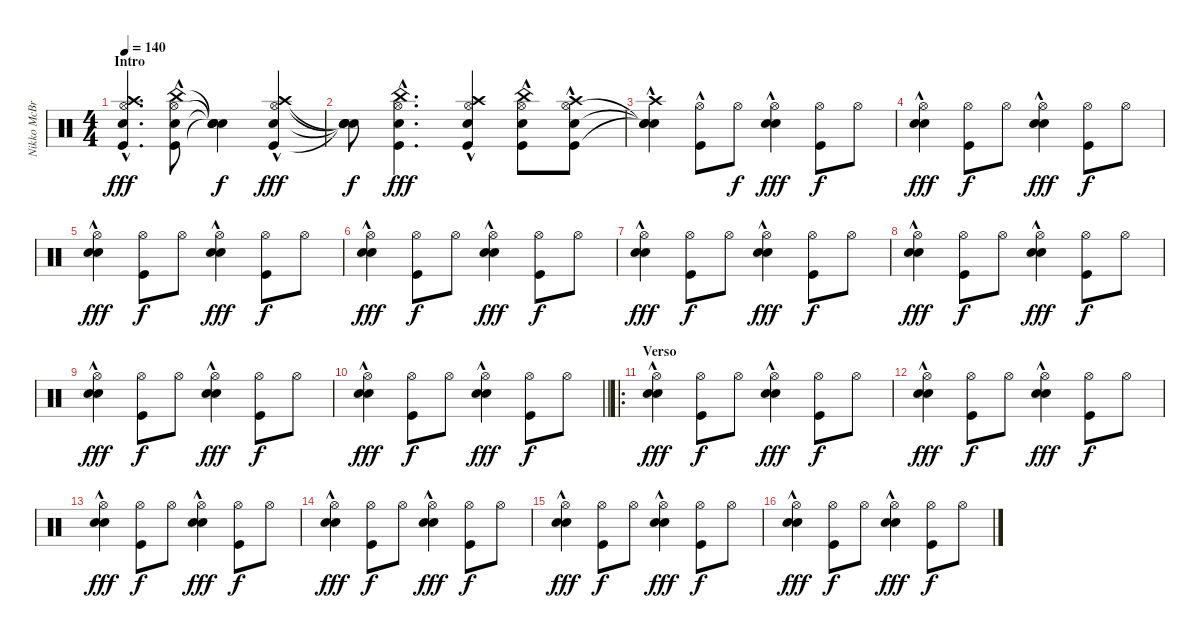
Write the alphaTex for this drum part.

\track ("Nikko McBrain" "Nikko McBr") {instrument percussion}
\staff {score}
\articulation defaults
\ts (4 4)
\section ("" "Intro")
\tempo 140
\clef neutral
\ks c
("Kick (hit)"{hac} "Hi-Hat (open)"{hac} "Crash high (hit)"{hac} "Snare (hit) 2"{hac}).4{d dy fff} ("Kick (hit)"{hac} "Hi-Hat (open)"{hac} "China (hit)"{hac} "Snare (hit) 2"{hac}).8 ("Snare (hit)"{t} "Snare (hit)"{t} "Snare (hit)"{t} "Snare (hit)"{t}).4{dy f} ("Kick (hit)"{hac} "Hi-Hat (open)"{hac} "Crash high (hit)"{hac} "Snare (hit) 2"{hac}).4{dy fff} |
("Snare (hit)"{t} "Snare (hit)"{t} "Snare (hit)"{t} "Snare (hit)"{t}).8{dy f} ("Kick (hit)"{hac} "Hi-Hat (open)"{hac} "China (hit)"{hac} "Snare (hit) 2"{hac}).4{d dy fff} ("Kick (hit)"{hac} "Hi-Hat (open)"{hac} "Crash high (hit)"{hac} "Snare (hit) 2"{hac}).4 ("Kick (hit)"{hac} "Hi-Hat (open)"{hac} "China (hit)"{hac} "Snare (hit) 2"{hac}).8 ("Kick (hit)"{hac} "Hi-Hat (open)"{hac} "Crash high (hit)"{hac} "Snare (hit) 2"{hac}).8 |
("Snare (hit)"{t} "Snare (hit)"{t} "Crash high (hit)"{hac} "Snare (hit)"{t}).4 ("Hi-Hat (open)" "Kick (hit)"{hac}).8 "Hi-Hat (open)".8{dy f} ("Hi-Hat (open)" "Snare (hit) 2"{hac} "Snare (hit) 2"{hac}).4{dy fff} ("Hi-Hat (open)" "Kick (hit)").8{dy f} "Hi-Hat (open)".8 |
("Hi-Hat (open)" "Snare (hit) 2"{hac} "Snare (hit) 2"{hac}).4{dy fff} ("Hi-Hat (open)" "Kick (hit)").8{dy f} "Hi-Hat (open)".8 ("Hi-Hat (open)" "Snare (hit) 2"{hac} "Snare (hit) 2"{hac}).4{dy fff} ("Hi-Hat (open)" "Kick (hit)").8{dy f} "Hi-Hat (open)".8 |
("Hi-Hat (open)" "Snare (hit) 2"{hac} "Snare (hit) 2"{hac}).4{dy fff} ("Hi-Hat (open)" "Kick (hit)").8{dy f} "Hi-Hat (open)".8 ("Hi-Hat (open)" "Snare (hit) 2"{hac} "Snare (hit) 2"{hac}).4{dy fff} ("Hi-Hat (open)" "Kick (hit)").8{dy f} "Hi-Hat (open)".8 |
("Hi-Hat (open)" "Snare (hit) 2"{hac} "Snare (hit) 2"{hac}).4{dy fff} ("Hi-Hat (open)" "Kick (hit)").8{dy f} "Hi-Hat (open)".8 ("Hi-Hat (open)" "Snare (hit) 2"{hac} "Snare (hit) 2"{hac}).4{dy fff} ("Hi-Hat (open)" "Kick (hit)").8{dy f} "Hi-Hat (open)".8 |
("Hi-Hat (open)" "Snare (hit) 2"{hac} "Snare (hit) 2"{hac}).4{dy fff} ("Hi-Hat (open)" "Kick (hit)").8{dy f} "Hi-Hat (open)".8 ("Hi-Hat (open)" "Snare (hit) 2"{hac} "Snare (hit) 2"{hac}).4{dy fff} ("Hi-Hat (open)" "Kick (hit)").8{dy f} "Hi-Hat (open)".8 |
("Hi-Hat (open)" "Snare (hit) 2"{hac} "Snare (hit) 2"{hac}).4{dy fff} ("Hi-Hat (open)" "Kick (hit)").8{dy f} "Hi-Hat (open)".8 ("Hi-Hat (open)" "Snare (hit) 2"{hac} "Snare (hit) 2"{hac}).4{dy fff} ("Hi-Hat (open)" "Kick (hit)").8{dy f} "Hi-Hat (open)".8 |
("Hi-Hat (open)" "Snare (hit) 2"{hac} "Snare (hit) 2"{hac}).4{dy fff} ("Hi-Hat (open)" "Kick (hit)").8{dy f} "Hi-Hat (open)".8 ("Hi-Hat (open)" "Snare (hit) 2"{hac} "Snare (hit) 2"{hac}).4{dy fff} ("Hi-Hat (open)" "Kick (hit)").8{dy f} "Hi-Hat (open)".8 |
\barLineRight lightlight
("Hi-Hat (open)" "Snare (hit) 2"{hac} "Snare (hit) 2"{hac}).4{dy fff} ("Hi-Hat (open)" "Kick (hit)").8{dy f} "Hi-Hat (open)".8 ("Hi-Hat (open)" "Snare (hit) 2"{hac} "Snare (hit) 2"{hac}).4{dy fff} ("Hi-Hat (open)" "Kick (hit)").8{dy f} "Hi-Hat (open)".8 |
\ro
\section ("" "Verso")
("Hi-Hat (open)" "Snare (hit) 2"{hac} "Snare (hit) 2"{hac}).4{dy fff} ("Hi-Hat (open)" "Kick (hit)").8{dy f} "Hi-Hat (open)".8 ("Hi-Hat (open)" "Snare (hit) 2"{hac} "Snare (hit) 2"{hac}).4{dy fff} ("Hi-Hat (open)" "Kick (hit)").8{dy f} "Hi-Hat (open)".8 |
("Hi-Hat (open)" "Snare (hit) 2"{hac} "Snare (hit) 2"{hac}).4{dy fff} ("Hi-Hat (open)" "Kick (hit)").8{dy f} "Hi-Hat (open)".8 ("Hi-Hat (open)" "Snare (hit) 2"{hac} "Snare (hit) 2"{hac}).4{dy fff} ("Hi-Hat (open)" "Kick (hit)").8{dy f} "Hi-Hat (open)".8 |
("Hi-Hat (open)" "Snare (hit) 2"{hac} "Snare (hit) 2"{hac}).4{dy fff} ("Hi-Hat (open)" "Kick (hit)").8{dy f} "Hi-Hat (open)".8 ("Hi-Hat (open)" "Snare (hit) 2"{hac} "Snare (hit) 2"{hac}).4{dy fff} ("Hi-Hat (open)" "Kick (hit)").8{dy f} "Hi-Hat (open)".8 |
("Hi-Hat (open)" "Snare (hit) 2"{hac} "Snare (hit) 2"{hac}).4{dy fff} ("Hi-Hat (open)" "Kick (hit)").8{dy f} "Hi-Hat (open)".8 ("Hi-Hat (open)" "Snare (hit) 2"{hac} "Snare (hit) 2"{hac}).4{dy fff} ("Hi-Hat (open)" "Kick (hit)").8{dy f} "Hi-Hat (open)".8 |
("Hi-Hat (open)" "Snare (hit) 2"{hac} "Snare (hit) 2"{hac}).4{dy fff} ("Hi-Hat (open)" "Kick (hit)").8{dy f} "Hi-Hat (open)".8 ("Hi-Hat (open)" "Snare (hit) 2"{hac} "Snare (hit) 2"{hac}).4{dy fff} ("Hi-Hat (open)" "Kick (hit)").8{dy f} "Hi-Hat (open)".8 |
("Hi-Hat (open)" "Snare (hit) 2"{hac} "Snare (hit) 2"{hac}).4{dy fff} ("Hi-Hat (open)" "Kick (hit)").8{dy f} "Hi-Hat (open)".8 ("Hi-Hat (open)" "Snare (hit) 2"{hac} "Snare (hit) 2"{hac}).4{dy fff} ("Hi-Hat (open)" "Kick (hit)").8{dy f} "Hi-Hat (open)".8
